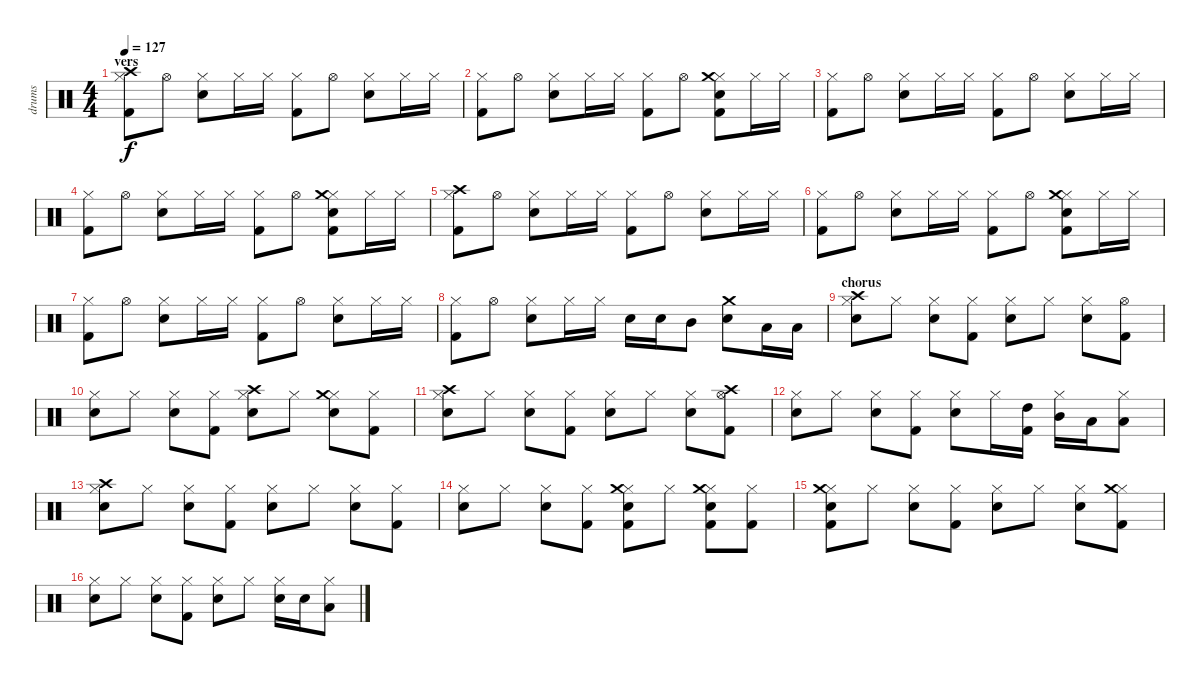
\track ("drums" "drums") {instrument percussion}
\staff {score}
\articulation defaults
\ts (4 4)
\section ("" "vers")
\tempo 127
\clef neutral
\ks c
("Kick (hit) 2" "Crash high (hit)" "Hi-Hat (closed)").8{dy f} "Hi-Hat (open)".8 ("Electric Snare (hit)" "Hi-Hat (closed)").8 "Hi-Hat (closed)".16 "Hi-Hat (closed)".16 ("Kick (hit) 2" "Hi-Hat (closed)").8 "Hi-Hat (open)".8 ("Electric Snare (hit)" "Hi-Hat (closed)").8 "Hi-Hat (closed)".16 "Hi-Hat (closed)".16 |
("Kick (hit) 2" "Hi-Hat (closed)").8 "Hi-Hat (open)".8 ("Electric Snare (hit)" "Hi-Hat (closed)").8 "Hi-Hat (closed)".16 "Hi-Hat (closed)".16 ("Kick (hit) 2" "Hi-Hat (closed)").8 "Hi-Hat (open)".8 ("Kick (hit) 2" "Electric Snare (hit)" "Hi-Hat (closed)" "Crash medium (hit)").8 "Hi-Hat (closed)".16 "Hi-Hat (closed)".16 |
("Kick (hit) 2" "Hi-Hat (closed)").8 "Hi-Hat (open)".8 ("Electric Snare (hit)" "Hi-Hat (closed)").8 "Hi-Hat (closed)".16 "Hi-Hat (closed)".16 ("Kick (hit) 2" "Hi-Hat (closed)").8 "Hi-Hat (open)".8 ("Electric Snare (hit)" "Hi-Hat (closed)").8 "Hi-Hat (closed)".16 "Hi-Hat (closed)".16 |
("Kick (hit) 2" "Hi-Hat (closed)").8 "Hi-Hat (open)".8 ("Electric Snare (hit)" "Hi-Hat (closed)").8 "Hi-Hat (closed)".16 "Hi-Hat (closed)".16 ("Kick (hit) 2" "Hi-Hat (closed)").8 "Hi-Hat (open)".8 ("Kick (hit) 2" "Electric Snare (hit)" "Hi-Hat (closed)" "Crash medium (hit)").8 "Hi-Hat (closed)".16 "Hi-Hat (closed)".16 |
("Kick (hit) 2" "Crash high (hit)" "Hi-Hat (closed)").8 "Hi-Hat (open)".8 ("Electric Snare (hit)" "Hi-Hat (closed)").8 "Hi-Hat (closed)".16 "Hi-Hat (closed)".16 ("Kick (hit) 2" "Hi-Hat (closed)").8 "Hi-Hat (open)".8 ("Electric Snare (hit)" "Hi-Hat (closed)").8 "Hi-Hat (closed)".16 "Hi-Hat (closed)".16 |
("Kick (hit) 2" "Hi-Hat (closed)").8 "Hi-Hat (open)".8 ("Electric Snare (hit)" "Hi-Hat (closed)").8 "Hi-Hat (closed)".16 "Hi-Hat (closed)".16 ("Kick (hit) 2" "Hi-Hat (closed)").8 "Hi-Hat (open)".8 ("Kick (hit) 2" "Electric Snare (hit)" "Hi-Hat (closed)" "Crash medium (hit)").8 "Hi-Hat (closed)".16 "Hi-Hat (closed)".16 |
("Kick (hit) 2" "Hi-Hat (closed)").8 "Hi-Hat (open)".8 ("Electric Snare (hit)" "Hi-Hat (closed)").8 "Hi-Hat (closed)".16 "Hi-Hat (closed)".16 ("Kick (hit) 2" "Hi-Hat (closed)").8 "Hi-Hat (open)".8 ("Electric Snare (hit)" "Hi-Hat (closed)").8 "Hi-Hat (closed)".16 "Hi-Hat (closed)".16 |
("Kick (hit) 2" "Hi-Hat (closed)").8 "Hi-Hat (open)".8 ("Electric Snare (hit)" "Hi-Hat (closed)").8 "Hi-Hat (closed)".16 "Hi-Hat (closed)".16 "Electric Snare (hit)".16 "Electric Snare (hit)".16 "Mid Tom (hit)".8 ("Electric Snare (hit)" "Crash medium (hit)").8 "Low Tom (hit)".16 "Low Floor Tom (hit)".16 |
\section ("" "chorus")
("Electric Snare (hit)" "Hi-Hat (closed)" "Crash high (hit)").8 "Hi-Hat (closed)".8 ("Electric Snare (hit)" "Hi-Hat (closed)").8 ("Kick (hit) 2" "Hi-Hat (closed)").8 ("Electric Snare (hit)" "Hi-Hat (closed)").8 "Hi-Hat (closed)".8 ("Electric Snare (hit)" "Hi-Hat (closed)").8 ("Kick (hit) 2" "Hi-Hat (open)").8 |
("Electric Snare (hit)" "Hi-Hat (closed)").8 "Hi-Hat (closed)".8 ("Electric Snare (hit)" "Hi-Hat (closed)").8 ("Kick (hit) 2" "Hi-Hat (closed)").8 ("Electric Snare (hit)" "Hi-Hat (closed)" "Crash high (hit)").8 "Hi-Hat (closed)".8 ("Electric Snare (hit)" "Hi-Hat (closed)" "Crash medium (hit)").8 ("Kick (hit) 2" "Hi-Hat (closed)").8 |
("Electric Snare (hit)" "Hi-Hat (closed)" "Crash high (hit)").8 "Hi-Hat (closed)".8 ("Electric Snare (hit)" "Hi-Hat (closed)").8 ("Kick (hit) 2" "Hi-Hat (closed)").8 ("Electric Snare (hit)" "Hi-Hat (closed)").8 "Hi-Hat (closed)".8 ("Electric Snare (hit)" "Hi-Hat (closed)").8 ("Kick (hit) 2" "Hi-Hat (open)" "Crash high (hit)").8 |
("Electric Snare (hit)" "Hi-Hat (closed)").8 "Hi-Hat (closed)".8 ("Electric Snare (hit)" "Hi-Hat (closed)").8 ("Kick (hit) 2" "Hi-Hat (closed)").8 ("Electric Snare (hit)" "Hi-Hat (closed)").8 "Hi-Hat (closed)".16 ("Kick (hit) 2" "High Tom (hit)").16 ("Mid Tom (hit)" "Hi-Hat (closed)").16 "Low Tom (hit)".16 ("Low Floor Tom (hit)" "Hi-Hat (closed)").8 |
("Electric Snare (hit)" "Hi-Hat (closed)" "Crash high (hit)").8 "Hi-Hat (closed)".8 ("Electric Snare (hit)" "Hi-Hat (closed)").8 ("Kick (hit) 2" "Hi-Hat (closed)").8 ("Electric Snare (hit)" "Hi-Hat (closed)").8 "Hi-Hat (closed)".8 ("Electric Snare (hit)" "Hi-Hat (closed)").8 ("Kick (hit) 2" "Hi-Hat (closed)").8 |
("Electric Snare (hit)" "Hi-Hat (closed)").8 "Hi-Hat (closed)".8 ("Electric Snare (hit)" "Hi-Hat (closed)").8 ("Kick (hit) 2" "Hi-Hat (closed)").8 ("Kick (hit) 2" "Electric Snare (hit)" "Hi-Hat (closed)" "Crash medium (hit)").8 "Hi-Hat (closed)".8 ("Kick (hit) 2" "Electric Snare (hit)" "Hi-Hat (closed)" "Crash medium (hit)").8 ("Kick (hit) 2" "Hi-Hat (closed)").8 |
("Kick (hit) 2" "Electric Snare (hit)" "Hi-Hat (closed)" "Crash medium (hit)").8 "Hi-Hat (closed)".8 ("Electric Snare (hit)" "Hi-Hat (closed)").8 ("Kick (hit) 2" "Hi-Hat (closed)").8 ("Electric Snare (hit)" "Hi-Hat (closed)").8 "Hi-Hat (closed)".8 ("Electric Snare (hit)" "Hi-Hat (closed)").8 ("Kick (hit) 2" "Hi-Hat (closed)" "Crash medium (hit)").8 |
("Electric Snare (hit)" "Hi-Hat (closed)").8 "Hi-Hat (closed)".8 ("Electric Snare (hit)" "Hi-Hat (closed)").8 ("Kick (hit) 2" "Hi-Hat (closed)").8 ("Electric Snare (hit)" "Hi-Hat (closed)").8 "Hi-Hat (closed)".8 ("Electric Snare (hit)" "Hi-Hat (closed)").16 "Electric Snare (hit)".16 ("Low Tom (hit)" "Hi-Hat (closed)").8
